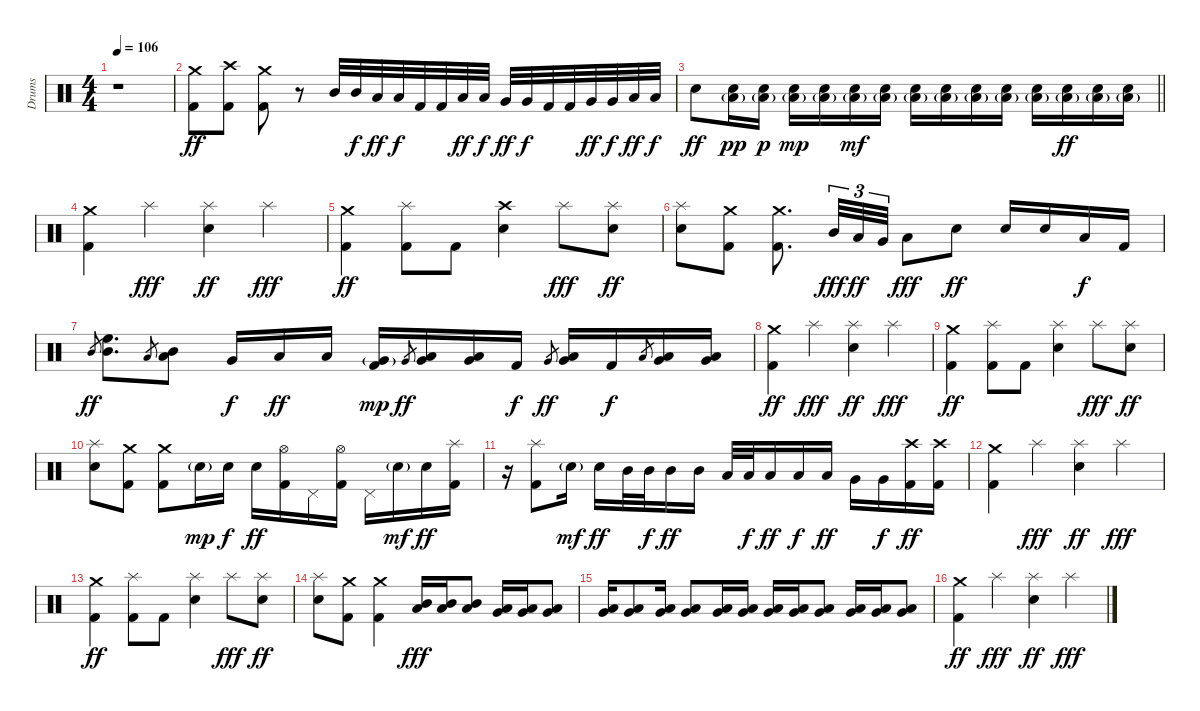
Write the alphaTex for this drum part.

\track ("Drums" "Drums") {instrument percussion}
\staff {score}
\articulation defaults
\ts (4 4)
\tempo 106
\clef neutral
\ks c
r.1{dy f} |
("Crash medium (hit)" "Kick (hit) 2").8{dy ff} ("Crash high (hit)" "Kick (hit) 2").8 ("Crash medium (hit)" "Kick (hit) 2").8 r.8 "Mid Tom (hit)".32 "Mid Tom (hit)".32{dy f} "Low Tom (hit)".32{dy ff} "Low Tom (hit)".32{dy f} "Kick (hit) 2".32 "Kick (hit) 2".32 "Low Tom (hit)".32{dy ff} "Low Tom (hit)".32{dy f} "Very Low Tom (hit)".32{dy ff} "Very Low Tom (hit)".32{dy f} "Kick (hit) 2".32 "Kick (hit) 2".32 "Very Low Tom (hit)".32{dy ff} "Very Low Tom (hit)".32{dy f} "Low Floor Tom (hit)".32{dy ff} "Low Floor Tom (hit)".32{dy f} |
\barLineRight lightlight "Electric Snare (hit)".8{dy ff}
("Low Floor Tom (hit)"{g} "Electric Snare (hit)").16{dy pp} ("Low Floor Tom (hit)"{g} "Electric Snare (hit)").16{dy p} ("Low Floor Tom (hit)"{g} "Electric Snare (hit)").16{dy mp} ("Low Floor Tom (hit)"{g} "Electric Snare (hit)").16 ("Low Floor Tom (hit)"{g} "Electric Snare (hit)").16{dy mf} ("Low Floor Tom (hit)"{g} "Electric Snare (hit)").16 ("Low Floor Tom (hit)"{g} "Electric Snare (hit)").16 ("Low Floor Tom (hit)"{g} "Electric Snare (hit)").16 ("Low Floor Tom (hit)"{g} "Electric Snare (hit)").16 ("Low Floor Tom (hit)"{g} "Electric Snare (hit)").16 ("Low Floor Tom (hit)"{g} "Electric Snare (hit)").16 ("Low Floor Tom (hit)"{g} "Electric Snare (hit)").16{dy ff} ("Low Floor Tom (hit)"{g} "Electric Snare (hit)").16 ("Low Floor Tom (hit)"{g} "Electric Snare (hit)").16 |
("Crash medium (hit)" "Kick (hit) 2").4 "Splash (hit)".4{dy fff} ("Splash (hit)" "Electric Snare (hit)").4{dy ff} "Splash (hit)".4{dy fff} |
("Crash medium (hit)" "Kick (hit) 2").4{dy ff} ("Splash (hit)" "Kick (hit) 2").8 "Kick (hit) 2".8 ("Crash high (hit)" "Electric Snare (hit)").4 "Splash (hit)".8{dy fff} ("Splash (hit)" "Electric Snare (hit)").8{dy ff} |
("Splash (hit)" "Electric Snare (hit)").8 ("Crash medium (hit)" "Kick (hit) 2").8 ("Crash medium (hit)" "Kick (hit) 2").8{d} "Mid Tom (hit)".32{tu (3 2) dy fff} "Low Tom (hit)".32{tu (3 2) dy ff} "Very Low Tom (hit)".32{tu (3 2)} "Low Floor Tom (hit)".8{dy fff} "Electric Snare (hit)".8{dy ff} "Electric Snare (hit)".16 "Electric Snare (hit)".16 "Low Tom (hit)".16{dy f} "Kick (hit) 2".16 |
"Mid Tom (hit)".8{gr dy ff} ("High Floor Tom (hit)" "Mid Tom (hit)").8{d} "Low Tom (hit)".8{gr} ("Mid Tom (hit)" "Low Tom (hit)").8 "Very Low Tom (hit)".16{dy f} "Low Tom (hit)".16{dy ff} "Low Tom (hit)".16 ("Very Low Tom (hit)"{g} "Kick (hit) 2").16{dy mp} "Very Low Tom (hit)".8{gr dy ff} ("Low Tom (hit)" "Very Low Tom (hit)").16 ("Low Tom (hit)" "Very Low Tom (hit)").16 "Kick (hit) 2".16{dy f} "Very Low Tom (hit)".8{gr dy ff} ("Low Tom (hit)" "Very Low Tom (hit)").16 "Kick (hit) 2".16{dy f} "Low Floor Tom (hit)".8{gr} ("Very Low Tom (hit)" "Low Floor Tom (hit)").16 ("Very Low Tom (hit)" "Low Floor Tom (hit)").16 |
("Crash medium (hit)" "Kick (hit) 2").4{dy ff} "Splash (hit)".4{dy fff} ("Splash (hit)" "Electric Snare (hit)").4{dy ff} "Splash (hit)".4{dy fff} |
("Crash medium (hit)" "Kick (hit) 2").4{dy ff} ("Splash (hit)" "Kick (hit) 2").8 "Kick (hit) 2".8 ("Splash (hit)" "Electric Snare (hit)").4 "Splash (hit)".8{dy fff} ("Splash (hit)" "Electric Snare (hit)").8{dy ff} |
("Splash (hit)" "Electric Snare (hit)").8 ("Crash medium (hit)" "Kick (hit) 2").8 ("Crash medium (hit)" "Kick (hit) 2").8 "Electric Snare (hit)"{g}.16{dy mp} "Electric Snare (hit)".16{dy f} "Electric Snare (hit)".16{dy ff} ("Hi-Hat (open)" "Kick (hit) 2").16 "Pedal Hi-Hat (hit)".16 ("Hi-Hat (open)" "Kick (hit) 2").16 "Pedal Hi-Hat (hit)".16 "Electric Snare (hit)"{g}.16{dy mf} "Electric Snare (hit)".16{dy ff} ("Splash (hit)" "Kick (hit) 2").16 |
r.16 ("Splash (hit)" "Kick (hit) 2").8 "Electric Snare (hit)"{g}.16{dy mf} "Electric Snare (hit)".16{dy ff} "Mid Tom (hit)".32 "Mid Tom (hit)".32{dy f} "Mid Tom (hit)".16{dy ff} "Mid Tom (hit)".16 "Low Tom (hit)".32 "Low Tom (hit)".32{dy f} "Low Tom (hit)".16{dy ff} "Low Tom (hit)".16{dy f} "Low Tom (hit)".16{dy ff} "Very Low Tom (hit)".16 "Very Low Tom (hit)".16{dy f} ("Crash high (hit)" "Kick (hit) 2").16{dy ff} ("Crash high (hit)" "Kick (hit) 2").16 |
("Crash medium (hit)" "Kick (hit) 2").4 "Splash (hit)".4{dy fff} ("Splash (hit)" "Electric Snare (hit)").4{dy ff} "Splash (hit)".4{dy fff} |
("Crash medium (hit)" "Kick (hit) 2").4{dy ff} ("Splash (hit)" "Kick (hit) 2").8 "Kick (hit) 2".8 ("Splash (hit)" "Electric Snare (hit)").4 "Splash (hit)".8{dy fff} ("Splash (hit)" "Electric Snare (hit)").8{dy ff} |
("Splash (hit)" "Electric Snare (hit)").8 ("Crash medium (hit)" "Kick (hit) 2").8 ("Crash medium (hit)" "Kick (hit) 2").4 ("Mid Tom (hit)" "Low Tom (hit)").16{dy fff} ("Mid Tom (hit)" "Low Tom (hit)").16 ("Mid Tom (hit)" "Low Tom (hit)").8 ("Low Tom (hit)" "Very Low Tom (hit)").16 ("Low Tom (hit)" "Very Low Tom (hit)").16 ("Low Tom (hit)" "Very Low Tom (hit)").8 |
("Low Tom (hit)" "Very Low Tom (hit)").16 ("Low Tom (hit)" "Very Low Tom (hit)").8 ("Low Tom (hit)" "Very Low Tom (hit)").16 ("Low Tom (hit)" "Very Low Tom (hit)").8 ("Low Tom (hit)" "Very Low Tom (hit)").16 ("Low Tom (hit)" "Very Low Tom (hit)").16 ("Low Tom (hit)" "Very Low Tom (hit)").16 ("Low Tom (hit)" "Very Low Tom (hit)").16 ("Low Tom (hit)" "Very Low Tom (hit)").8 ("Very Low Tom (hit)" "Low Floor Tom (hit)").16 ("Very Low Tom (hit)" "Low Floor Tom (hit)").16 ("Very Low Tom (hit)" "Low Floor Tom (hit)").8 |
("Crash medium (hit)" "Kick (hit) 2").4{dy ff} "Splash (hit)".4{dy fff} ("Splash (hit)" "Electric Snare (hit)").4{dy ff} "Splash (hit)".4{dy fff}
